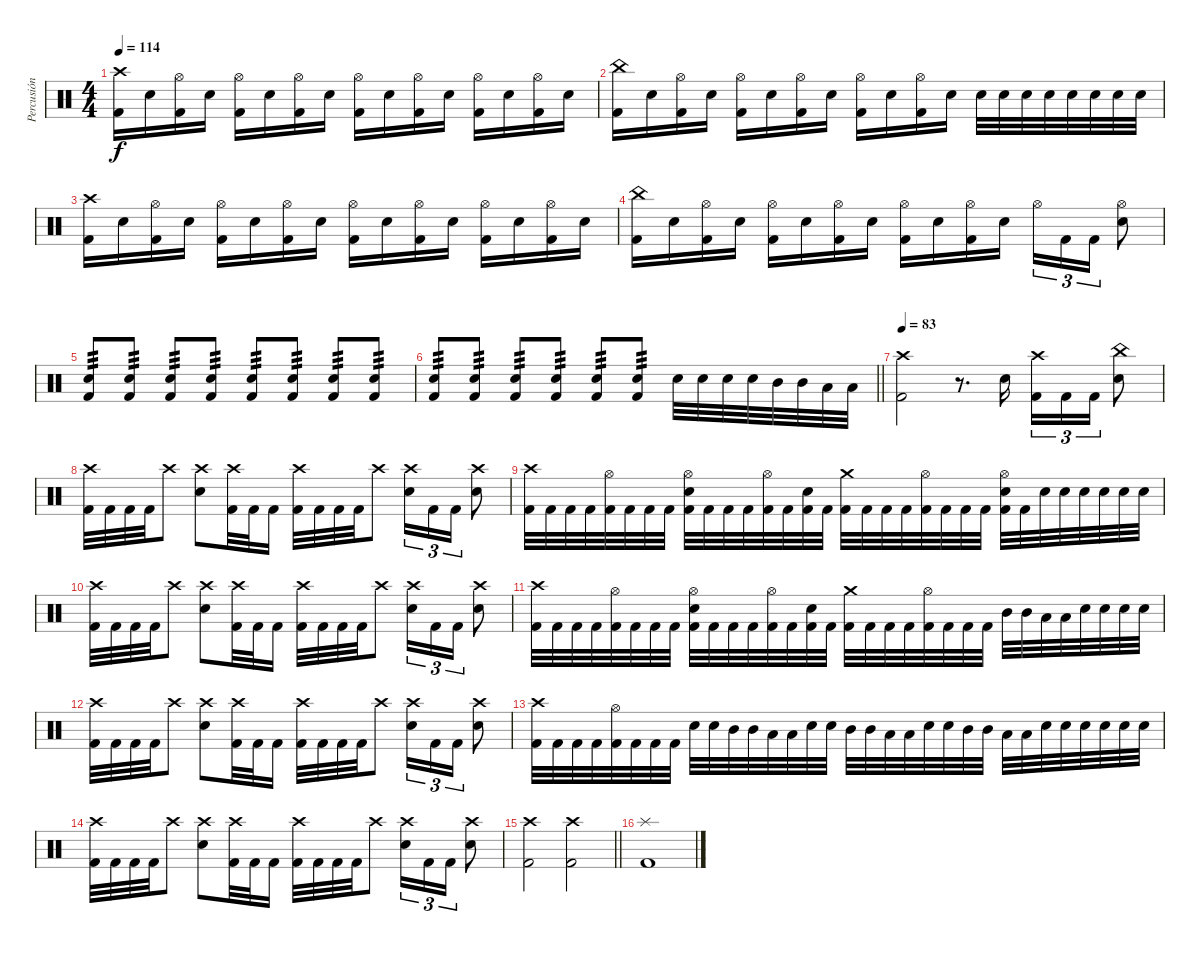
\track ("Percusión" "Percusión") {instrument percussion}
\staff
\articulation defaults
\ts (4 4)
\tempo 114
\clef neutral
\ks c
("Kick (hit) 2" "Crash high (hit)").16{dy f} "Electric Snare (hit)".16 ("Kick (hit) 2" "Hi-Hat (open)").16 "Electric Snare (hit)".16 ("Kick (hit) 2" "Hi-Hat (open)").16 "Electric Snare (hit)".16 ("Kick (hit) 2" "Hi-Hat (open)").16 "Electric Snare (hit)".16 ("Kick (hit) 2" "Hi-Hat (open)").16 "Electric Snare (hit)".16 ("Kick (hit) 2" "Hi-Hat (open)").16 "Electric Snare (hit)".16 ("Kick (hit) 2" "Hi-Hat (open)").16 "Electric Snare (hit)".16 ("Kick (hit) 2" "Hi-Hat (open)").16 "Electric Snare (hit)".16 |
("Kick (hit) 2" "China (hit)").16 "Electric Snare (hit)".16 ("Kick (hit) 2" "Hi-Hat (open)").16 "Electric Snare (hit)".16 ("Kick (hit) 2" "Hi-Hat (open)").16 "Electric Snare (hit)".16 ("Kick (hit) 2" "Hi-Hat (open)").16 "Electric Snare (hit)".16 ("Kick (hit) 2" "Hi-Hat (open)").16 "Electric Snare (hit)".16 ("Kick (hit) 2" "Hi-Hat (open)").16 "Electric Snare (hit)".16 "Snare (hit) 2".32 "Snare (hit) 2".32 "Snare (hit) 2".32 "Snare (hit) 2".32 "Snare (hit) 2".32 "Snare (hit) 2".32 "Snare (hit) 2".32 "Snare (hit) 2".32 |
("Kick (hit) 2" "Crash high (hit)").16 "Electric Snare (hit)".16 ("Kick (hit) 2" "Hi-Hat (open)").16 "Electric Snare (hit)".16 ("Kick (hit) 2" "Hi-Hat (open)").16 "Electric Snare (hit)".16 ("Kick (hit) 2" "Hi-Hat (open)").16 "Electric Snare (hit)".16 ("Kick (hit) 2" "Hi-Hat (open)").16 "Electric Snare (hit)".16 ("Kick (hit) 2" "Hi-Hat (open)").16 "Electric Snare (hit)".16 ("Kick (hit) 2" "Hi-Hat (open)").16 "Electric Snare (hit)".16 ("Kick (hit) 2" "Hi-Hat (open)").16 "Electric Snare (hit)".16 |
("Kick (hit) 2" "China (hit)").16 "Electric Snare (hit)".16 ("Kick (hit) 2" "Hi-Hat (open)").16 "Electric Snare (hit)".16 ("Kick (hit) 2" "Hi-Hat (open)").16 "Electric Snare (hit)".16 ("Kick (hit) 2" "Hi-Hat (open)").16 "Electric Snare (hit)".16 ("Kick (hit) 2" "Hi-Hat (open)").16 "Electric Snare (hit)".16 ("Kick (hit) 2" "Hi-Hat (open)").16 "Electric Snare (hit)".16 "Hi-Hat (open)".16{tu (3 2)} "Kick (hit) 2".16{tu (3 2)} "Kick (hit) 2".16{tu (3 2)} ("Hi-Hat (open)" "Electric Snare (hit)").8 |
("Kick (hit) 2" "Snare (hit) 2").8{tp 3} ("Kick (hit) 2" "Snare (hit) 2").8{tp 3} ("Kick (hit) 2" "Snare (hit) 2").8{tp 3} ("Kick (hit) 2" "Snare (hit) 2").8{tp 3} ("Kick (hit) 2" "Snare (hit) 2").8{tp 3} ("Kick (hit) 2" "Snare (hit) 2").8{tp 3} ("Kick (hit) 2" "Snare (hit) 2").8{tp 3} ("Kick (hit) 2" "Snare (hit) 2").8{tp 3} |
\barLineRight lightlight
("Kick (hit) 2" "Snare (hit) 2").8{tp 3} ("Kick (hit) 2" "Snare (hit) 2").8{tp 3} ("Kick (hit) 2" "Snare (hit) 2").8{tp 3} ("Kick (hit) 2" "Snare (hit) 2").8{tp 3} ("Kick (hit) 2" "Snare (hit) 2").8{tp 3} ("Kick (hit) 2" "Snare (hit) 2").8{tp 3} "Electric Snare (hit)".32 "Electric Snare (hit)".32 "Electric Snare (hit)".32 "Electric Snare (hit)".32 "Mid Tom (hit)".32 "Mid Tom (hit)".32 "Low Tom (hit)".32 "Low Tom (hit)".32 |
\section ("" "")
\tempo 83
("Kick (hit) 2" "Crash high (hit)").2 r.8{d} "Electric Snare (hit)".16 ("Kick (hit) 2" "Crash high (hit)").16{tu (3 2)} "Kick (hit) 2".16{tu (3 2)} "Kick (hit) 2".16{tu (3 2)} ("China (hit)" "Electric Snare (hit)").8 |
("Kick (hit) 2" "Crash high (hit)").32 "Kick (hit) 2".32 "Kick (hit) 2".32 "Kick (hit) 2".32 "Crash high (hit)".8 ("Crash high (hit)" "Electric Snare (hit)").8 ("Kick (hit) 2" "Crash high (hit)").32 "Kick (hit) 2".32 "Kick (hit) 2".16 ("Kick (hit) 2" "Crash high (hit)").32 "Kick (hit) 2".32 "Kick (hit) 2".32 "Kick (hit) 2".32 "Crash high (hit)".8 ("Crash high (hit)" "Electric Snare (hit)").16{tu (3 2)} "Kick (hit) 2".16{tu (3 2)} "Kick (hit) 2".16{tu (3 2)} ("Crash high (hit)" "Electric Snare (hit)").8 |
("Kick (hit) 2" "Crash high (hit)").32 "Kick (hit) 2".32 "Kick (hit) 2".32 "Kick (hit) 2".32 ("Kick (hit) 2" "Hi-Hat (open)").32 "Kick (hit) 2".32 "Kick (hit) 2".32 "Kick (hit) 2".32 ("Kick (hit) 2" "Hi-Hat (open)" "Electric Snare (hit)").32 "Kick (hit) 2".32 "Kick (hit) 2".32 "Kick (hit) 2".32 ("Kick (hit) 2" "Hi-Hat (open)").32 "Kick (hit) 2".32 ("Kick (hit) 2" "Electric Snare (hit)").32 "Kick (hit) 2".32 ("Kick (hit) 2" "Crash medium (hit)").32 "Kick (hit) 2".32 "Kick (hit) 2".32 "Kick (hit) 2".32 ("Kick (hit) 2" "Hi-Hat (open)").32 "Kick (hit) 2".32 "Kick (hit) 2".32 "Kick (hit) 2".32 ("Kick (hit) 2" "Hi-Hat (open)" "Electric Snare (hit)").32 "Kick (hit) 2".32 "Snare (hit) 2".32 "Snare (hit) 2".32 "Snare (hit) 2".32 "Snare (hit) 2".32 "Snare (hit) 2".32 "Snare (hit) 2".32 |
("Kick (hit) 2" "Crash high (hit)").32 "Kick (hit) 2".32 "Kick (hit) 2".32 "Kick (hit) 2".32 "Crash high (hit)".8 ("Crash high (hit)" "Electric Snare (hit)").8 ("Kick (hit) 2" "Crash high (hit)").32 "Kick (hit) 2".32 "Kick (hit) 2".16 ("Kick (hit) 2" "Crash high (hit)").32 "Kick (hit) 2".32 "Kick (hit) 2".32 "Kick (hit) 2".32 "Crash high (hit)".8 ("Crash high (hit)" "Electric Snare (hit)").16{tu (3 2)} "Kick (hit) 2".16{tu (3 2)} "Kick (hit) 2".16{tu (3 2)} ("Crash high (hit)" "Electric Snare (hit)").8 |
("Kick (hit) 2" "Crash high (hit)").32 "Kick (hit) 2".32 "Kick (hit) 2".32 "Kick (hit) 2".32 ("Kick (hit) 2" "Hi-Hat (open)").32 "Kick (hit) 2".32 "Kick (hit) 2".32 "Kick (hit) 2".32 ("Kick (hit) 2" "Hi-Hat (open)" "Electric Snare (hit)").32 "Kick (hit) 2".32 "Kick (hit) 2".32 "Kick (hit) 2".32 ("Kick (hit) 2" "Hi-Hat (open)").32 "Kick (hit) 2".32 ("Kick (hit) 2" "Electric Snare (hit)").32 "Kick (hit) 2".32 ("Kick (hit) 2" "Crash medium (hit)").32 "Kick (hit) 2".32 "Kick (hit) 2".32 "Kick (hit) 2".32 ("Kick (hit) 2" "Hi-Hat (open)").32 "Kick (hit) 2".32 "Kick (hit) 2".32 "Kick (hit) 2".32 "Mid Tom (hit)".32 "Mid Tom (hit)".32 "Low Tom (hit)".32 "Low Tom (hit)".32 "Snare (hit) 2".32 "Snare (hit) 2".32 "Snare (hit) 2".32 "Snare (hit) 2".32 |
("Kick (hit) 2" "Crash high (hit)").32 "Kick (hit) 2".32 "Kick (hit) 2".32 "Kick (hit) 2".32 "Crash high (hit)".8 ("Crash high (hit)" "Electric Snare (hit)").8 ("Kick (hit) 2" "Crash high (hit)").32 "Kick (hit) 2".32 "Kick (hit) 2".16 ("Kick (hit) 2" "Crash high (hit)").32 "Kick (hit) 2".32 "Kick (hit) 2".32 "Kick (hit) 2".32 "Crash high (hit)".8 ("Crash high (hit)" "Electric Snare (hit)").16{tu (3 2)} "Kick (hit) 2".16{tu (3 2)} "Kick (hit) 2".16{tu (3 2)} ("Crash high (hit)" "Electric Snare (hit)").8 |
("Kick (hit) 2" "Crash high (hit)").32 "Kick (hit) 2".32 "Kick (hit) 2".32 "Kick (hit) 2".32 ("Kick (hit) 2" "Hi-Hat (open)").32 "Kick (hit) 2".32 "Kick (hit) 2".32 "Kick (hit) 2".32 "Snare (hit) 2".32 "Snare (hit) 2".32 "Mid Tom (hit)".32 "Mid Tom (hit)".32 "Low Tom (hit)".32 "Low Tom (hit)".32 "Snare (hit) 2".32 "Snare (hit) 2".32 "Mid Tom (hit)".32 "Mid Tom (hit)".32 "Low Tom (hit)".32 "Low Tom (hit)".32 "Snare (hit) 2".32 "Snare (hit) 2".32 "Mid Tom (hit)".32 "Mid Tom (hit)".32 "Low Tom (hit)".32 "Low Tom (hit)".32 "Snare (hit) 2".32 "Snare (hit) 2".32 "Snare (hit) 2".32 "Snare (hit) 2".32 "Snare (hit) 2".32 "Snare (hit) 2".32 |
("Kick (hit) 2" "Crash high (hit)").32 "Kick (hit) 2".32 "Kick (hit) 2".32 "Kick (hit) 2".32 "Crash high (hit)".8 ("Crash high (hit)" "Electric Snare (hit)").8 ("Kick (hit) 2" "Crash high (hit)").32 "Kick (hit) 2".32 "Kick (hit) 2".16 ("Kick (hit) 2" "Crash high (hit)").32 "Kick (hit) 2".32 "Kick (hit) 2".32 "Kick (hit) 2".32 "Crash high (hit)".8 ("Crash high (hit)" "Electric Snare (hit)").16{tu (3 2)} "Kick (hit) 2".16{tu (3 2)} "Kick (hit) 2".16{tu (3 2)} ("Crash high (hit)" "Electric Snare (hit)").8 |
\barLineRight lightlight
("Kick (hit) 2" "Crash high (hit)").2 ("Kick (hit) 2" "Crash high (hit)").2 |
\section ("" "")
("Kick (hit) 2" "Splash (hit)").1
